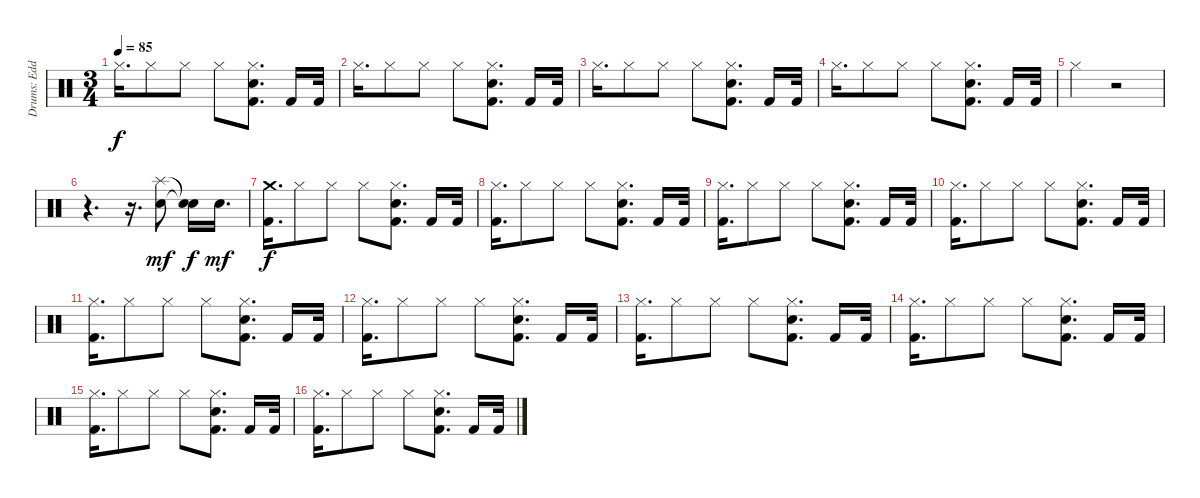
\track ("Drums: Eddie Bayers" "Drums: Edd") {instrument percussion}
\staff {score}
\articulation defaults
\ts (3 4)
\tempo 85
\clef neutral
\ks c "Hi-Hat (closed)".16{d dy f} "Hi-Hat (closed)".8 "Hi-Hat (closed)".8 "Hi-Hat (closed)".8
("Hi-Hat (closed)" "Snare (hit) 2" "Kick (hit) 2").8{d} "Kick (hit) 2".16 "Kick (hit) 2".32 |
"Hi-Hat (closed)".16{d} "Hi-Hat (closed)".8 "Hi-Hat (closed)".8 "Hi-Hat (closed)".8 ("Hi-Hat (closed)" "Snare (hit) 2" "Kick (hit) 2").8{d} "Kick (hit) 2".16 "Kick (hit) 2".32 |
"Hi-Hat (closed)".16{d} "Hi-Hat (closed)".8 "Hi-Hat (closed)".8 "Hi-Hat (closed)".8 ("Hi-Hat (closed)" "Snare (hit) 2" "Kick (hit) 2").8{d} "Kick (hit) 2".16 "Kick (hit) 2".32 |
"Hi-Hat (closed)".16{d} "Hi-Hat (closed)".8 "Hi-Hat (closed)".8 "Hi-Hat (closed)".8 ("Hi-Hat (closed)" "Snare (hit) 2" "Kick (hit) 2").8{d} "Kick (hit) 2".16 "Kick (hit) 2".32 |
"Hi-Hat (closed)".4 r.2 |
r.4{d} r.16{d} ("Splash (hit)" "Snare (hit) 2").8{dy mf} ("Snare (hit)"{t} "Snare (hit)"{t}).16{dy f} "Snare (hit) 2".16{d dy mf} |
("Crash medium (hit)" "Kick (hit) 2").16{d dy f} "Hi-Hat (closed)".8 "Hi-Hat (closed)".8 "Hi-Hat (closed)".8 ("Hi-Hat (closed)" "Snare (hit) 2" "Kick (hit) 2").8{d} "Kick (hit) 2".16 "Kick (hit) 2".32 |
("Hi-Hat (closed)" "Kick (hit) 2").16{d} "Hi-Hat (closed)".8 "Hi-Hat (closed)".8 "Hi-Hat (closed)".8 ("Hi-Hat (closed)" "Snare (hit) 2" "Kick (hit) 2").8{d} "Kick (hit) 2".16 "Kick (hit) 2".32 |
("Hi-Hat (closed)" "Kick (hit) 2").16{d} "Hi-Hat (closed)".8 "Hi-Hat (closed)".8 "Hi-Hat (closed)".8 ("Hi-Hat (closed)" "Snare (hit) 2" "Kick (hit) 2").8{d} "Kick (hit) 2".16 "Kick (hit) 2".32 |
("Hi-Hat (closed)" "Kick (hit) 2").16{d} "Hi-Hat (closed)".8 "Hi-Hat (closed)".8 "Hi-Hat (closed)".8 ("Hi-Hat (closed)" "Snare (hit) 2" "Kick (hit) 2").8{d} "Kick (hit) 2".16 "Kick (hit) 2".32 |
("Hi-Hat (closed)" "Kick (hit) 2").16{d} "Hi-Hat (closed)".8 "Hi-Hat (closed)".8 "Hi-Hat (closed)".8 ("Hi-Hat (closed)" "Snare (hit) 2" "Kick (hit) 2").8{d} "Kick (hit) 2".16 "Kick (hit) 2".32 |
("Hi-Hat (closed)" "Kick (hit) 2").16{d} "Hi-Hat (closed)".8 "Hi-Hat (closed)".8 "Hi-Hat (closed)".8 ("Hi-Hat (closed)" "Snare (hit) 2" "Kick (hit) 2").8{d} "Kick (hit) 2".16 "Kick (hit) 2".32 |
("Hi-Hat (closed)" "Kick (hit) 2").16{d} "Hi-Hat (closed)".8 "Hi-Hat (closed)".8 "Hi-Hat (closed)".8 ("Hi-Hat (closed)" "Snare (hit) 2" "Kick (hit) 2").8{d} "Kick (hit) 2".16 "Kick (hit) 2".32 |
("Hi-Hat (closed)" "Kick (hit) 2").16{d} "Hi-Hat (closed)".8 "Hi-Hat (closed)".8 "Hi-Hat (closed)".8 ("Hi-Hat (closed)" "Snare (hit) 2" "Kick (hit) 2").8{d} "Kick (hit) 2".16 "Kick (hit) 2".32 |
("Hi-Hat (closed)" "Kick (hit) 2").16{d} "Hi-Hat (closed)".8 "Hi-Hat (closed)".8 "Hi-Hat (closed)".8 ("Hi-Hat (closed)" "Snare (hit) 2" "Kick (hit) 2").8{d} "Kick (hit) 2".16 "Kick (hit) 2".32 |
("Hi-Hat (closed)" "Kick (hit) 2").16{d} "Hi-Hat (closed)".8 "Hi-Hat (closed)".8 "Hi-Hat (closed)".8 ("Hi-Hat (closed)" "Snare (hit) 2" "Kick (hit) 2").8{d} "Kick (hit) 2".16 "Kick (hit) 2".32
